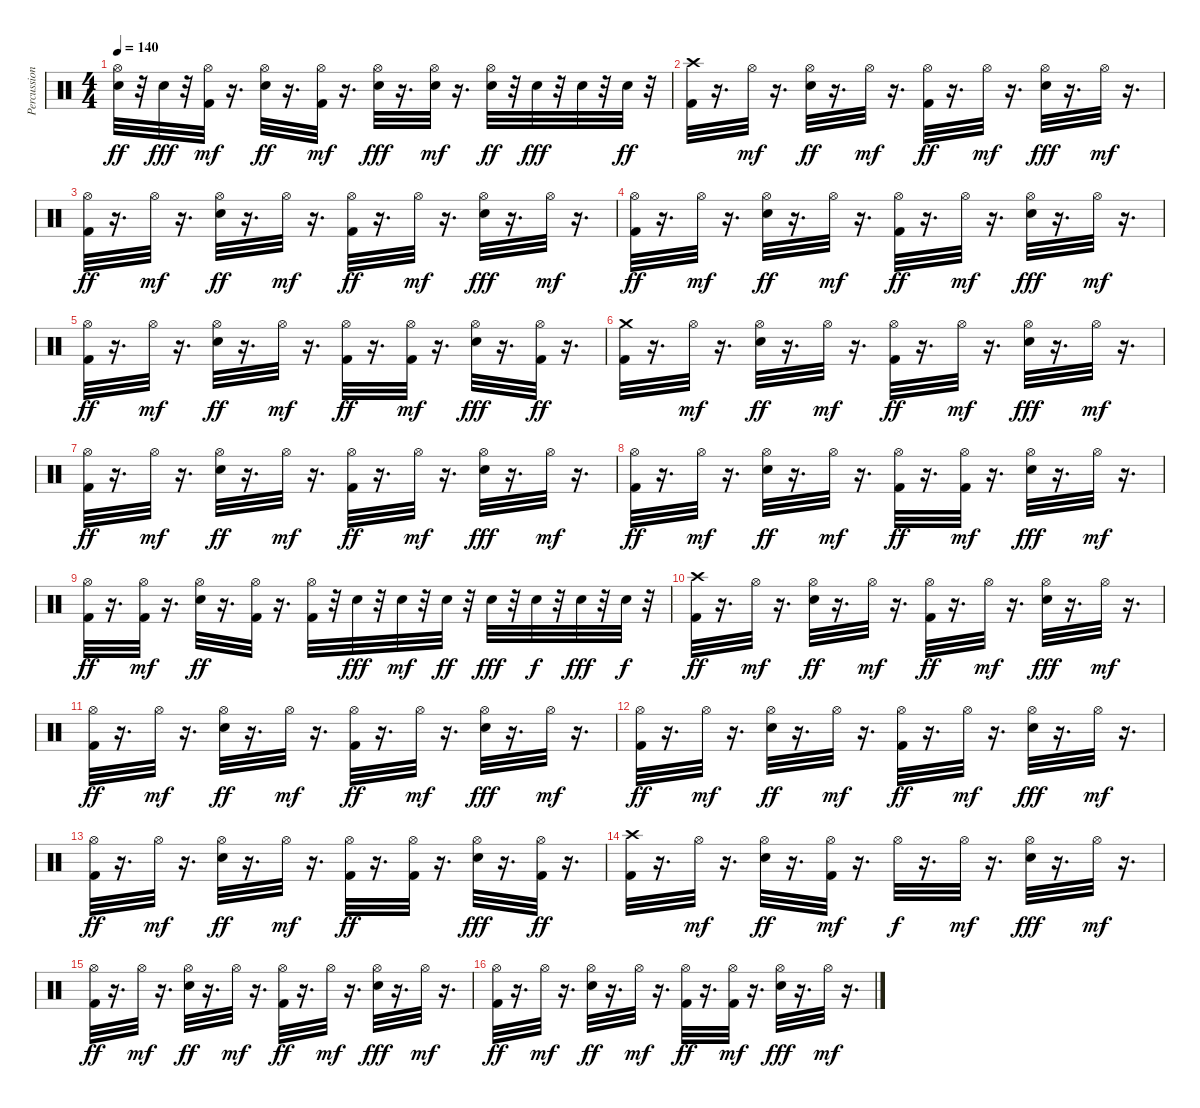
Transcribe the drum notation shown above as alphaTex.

\track ("Percussion" "Percussion") {instrument percussion}
\staff {score}
\articulation defaults
\ts (4 4)
\tempo 140
\clef neutral
\ks c
("Electric Snare (hit)" "Hi-Hat (open)").32{dy ff} r.32 "Electric Snare (hit)".32{dy fff} r.32 ("Kick (hit) 2" "Hi-Hat (open)").32{dy mf} r.16{d} ("Electric Snare (hit)" "Hi-Hat (open)").32{dy ff} r.16{d} ("Kick (hit) 2" "Hi-Hat (open)").32{dy mf} r.16{d} ("Hi-Hat (open)" "Electric Snare (hit)").32{dy fff} r.16{d} ("Electric Snare (hit)" "Hi-Hat (open)").32{dy mf} r.16{d} ("Electric Snare (hit)" "Hi-Hat (open)").32{dy ff} r.32 "Electric Snare (hit)".32{dy fff} r.32 "Electric Snare (hit)".32 r.32 "Electric Snare (hit)".32{dy ff} r.32 |
("Kick (hit) 2" "Crash high (hit)").32 r.16{d} "Hi-Hat (open)".32{dy mf} r.16{d} ("Electric Snare (hit)" "Hi-Hat (open)").32{dy ff} r.16{d} "Hi-Hat (open)".32{dy mf} r.16{d} ("Kick (hit) 2" "Hi-Hat (open)").32{dy ff} r.16{d} "Hi-Hat (open)".32{dy mf} r.16{d} ("Electric Snare (hit)" "Hi-Hat (open)").32{dy fff} r.16{d} "Hi-Hat (open)".32{dy mf} r.16{d} |
("Kick (hit) 2" "Hi-Hat (open)").32{dy ff} r.16{d} "Hi-Hat (open)".32{dy mf} r.16{d} ("Electric Snare (hit)" "Hi-Hat (open)").32{dy ff} r.16{d} "Hi-Hat (open)".32{dy mf} r.16{d} ("Kick (hit) 2" "Hi-Hat (open)").32{dy ff} r.16{d} "Hi-Hat (open)".32{dy mf} r.16{d} ("Electric Snare (hit)" "Hi-Hat (open)").32{dy fff} r.16{d} "Hi-Hat (open)".32{dy mf} r.16{d} |
("Kick (hit) 2" "Hi-Hat (open)").32{dy ff} r.16{d} "Hi-Hat (open)".32{dy mf} r.16{d} ("Electric Snare (hit)" "Hi-Hat (open)").32{dy ff} r.16{d} "Hi-Hat (open)".32{dy mf} r.16{d} ("Kick (hit) 2" "Hi-Hat (open)").32{dy ff} r.16{d} "Hi-Hat (open)".32{dy mf} r.16{d} ("Electric Snare (hit)" "Hi-Hat (open)").32{dy fff} r.16{d} "Hi-Hat (open)".32{dy mf} r.16{d} |
("Kick (hit) 2" "Hi-Hat (open)").32{dy ff} r.16{d} "Hi-Hat (open)".32{dy mf} r.16{d} ("Electric Snare (hit)" "Hi-Hat (open)").32{dy ff} r.16{d} "Hi-Hat (open)".32{dy mf} r.16{d} ("Kick (hit) 2" "Hi-Hat (open)").32{dy ff} r.16{d} ("Kick (hit) 2" "Hi-Hat (open)").32{dy mf} r.16{d} ("Electric Snare (hit)" "Hi-Hat (open)").32{dy fff} r.16{d} ("Hi-Hat (open)" "Kick (hit) 2").32{dy ff} r.16{d} |
("Kick (hit) 2" "Crash medium (hit)").32 r.16{d} "Hi-Hat (open)".32{dy mf} r.16{d} ("Electric Snare (hit)" "Hi-Hat (open)").32{dy ff} r.16{d} "Hi-Hat (open)".32{dy mf} r.16{d} ("Kick (hit) 2" "Hi-Hat (open)").32{dy ff} r.16{d} "Hi-Hat (open)".32{dy mf} r.16{d} ("Electric Snare (hit)" "Hi-Hat (open)").32{dy fff} r.16{d} "Hi-Hat (open)".32{dy mf} r.16{d} |
("Kick (hit) 2" "Hi-Hat (open)").32{dy ff} r.16{d} "Hi-Hat (open)".32{dy mf} r.16{d} ("Electric Snare (hit)" "Hi-Hat (open)").32{dy ff} r.16{d} "Hi-Hat (open)".32{dy mf} r.16{d} ("Kick (hit) 2" "Hi-Hat (open)").32{dy ff} r.16{d} "Hi-Hat (open)".32{dy mf} r.16{d} ("Electric Snare (hit)" "Hi-Hat (open)").32{dy fff} r.16{d} "Hi-Hat (open)".32{dy mf} r.16{d} |
("Kick (hit) 2" "Hi-Hat (open)").32{dy ff} r.16{d} "Hi-Hat (open)".32{dy mf} r.16{d} ("Electric Snare (hit)" "Hi-Hat (open)").32{dy ff} r.16{d} "Hi-Hat (open)".32{dy mf} r.16{d} ("Kick (hit) 2" "Hi-Hat (open)").32{dy ff} r.16{d} ("Kick (hit) 2" "Hi-Hat (open)").32{dy mf} r.16{d} ("Electric Snare (hit)" "Hi-Hat (open)").32{dy fff} r.16{d} "Hi-Hat (open)".32{dy mf} r.16{d} |
("Kick (hit) 2" "Hi-Hat (open)").32{dy ff} r.16{d} ("Kick (hit) 2" "Hi-Hat (open)").32{dy mf} r.16{d} ("Electric Snare (hit)" "Hi-Hat (open)").32{dy ff} r.16{d} ("Kick (hit) 2" "Hi-Hat (open)").32 r.16{d} ("Kick (hit) 2" "Hi-Hat (open)").32 r.32 "Electric Snare (hit)".32{dy fff} r.32 "Electric Snare (hit)".32{dy mf} r.32 "Electric Snare (hit)".32{dy ff} r.32 "Electric Snare (hit)".32{dy fff} r.32 "Electric Snare (hit)".32{dy f} r.32 "Electric Snare (hit)".32{dy fff} r.32 "Electric Snare (hit)".32{dy f} r.32 |
("Kick (hit) 2" "Crash high (hit)").32{dy ff} r.16{d} "Hi-Hat (open)".32{dy mf} r.16{d} ("Electric Snare (hit)" "Hi-Hat (open)").32{dy ff} r.16{d} "Hi-Hat (open)".32{dy mf} r.16{d} ("Kick (hit) 2" "Hi-Hat (open)").32{dy ff} r.16{d} "Hi-Hat (open)".32{dy mf} r.16{d} ("Electric Snare (hit)" "Hi-Hat (open)").32{dy fff} r.16{d} "Hi-Hat (open)".32{dy mf} r.16{d} |
("Kick (hit) 2" "Hi-Hat (open)").32{dy ff} r.16{d} "Hi-Hat (open)".32{dy mf} r.16{d} ("Electric Snare (hit)" "Hi-Hat (open)").32{dy ff} r.16{d} "Hi-Hat (open)".32{dy mf} r.16{d} ("Kick (hit) 2" "Hi-Hat (open)").32{dy ff} r.16{d} "Hi-Hat (open)".32{dy mf} r.16{d} ("Electric Snare (hit)" "Hi-Hat (open)").32{dy fff} r.16{d} "Hi-Hat (open)".32{dy mf} r.16{d} |
("Kick (hit) 2" "Hi-Hat (open)").32{dy ff} r.16{d} "Hi-Hat (open)".32{dy mf} r.16{d} ("Electric Snare (hit)" "Hi-Hat (open)").32{dy ff} r.16{d} "Hi-Hat (open)".32{dy mf} r.16{d} ("Kick (hit) 2" "Hi-Hat (open)").32{dy ff} r.16{d} "Hi-Hat (open)".32{dy mf} r.16{d} ("Electric Snare (hit)" "Hi-Hat (open)").32{dy fff} r.16{d} "Hi-Hat (open)".32{dy mf} r.16{d} |
("Kick (hit) 2" "Hi-Hat (open)").32{dy ff} r.16{d} "Hi-Hat (open)".32{dy mf} r.16{d} ("Electric Snare (hit)" "Hi-Hat (open)").32{dy ff} r.16{d} "Hi-Hat (open)".32{dy mf} r.16{d} ("Kick (hit) 2" "Hi-Hat (open)").32{dy ff} r.16{d} ("Hi-Hat (open)" "Kick (hit) 2").32 r.16{d} ("Electric Snare (hit)" "Hi-Hat (open)").32{dy fff} r.16{d} ("Hi-Hat (open)" "Kick (hit) 2").32{dy ff} r.16{d} |
("Kick (hit) 2" "Crash high (hit)").32 r.16{d} "Hi-Hat (open)".32{dy mf} r.16{d} ("Electric Snare (hit)" "Hi-Hat (open)").32{dy ff} r.16{d} ("Kick (hit) 2" "Hi-Hat (open)").32{dy mf} r.16{d} "Hi-Hat (open)".32{dy f} r.16{d} "Hi-Hat (open)".32{dy mf} r.16{d} ("Electric Snare (hit)" "Hi-Hat (open)").32{dy fff} r.16{d} "Hi-Hat (open)".32{dy mf} r.16{d} |
("Kick (hit) 2" "Hi-Hat (open)").32{dy ff} r.16{d} "Hi-Hat (open)".32{dy mf} r.16{d} ("Electric Snare (hit)" "Hi-Hat (open)").32{dy ff} r.16{d} "Hi-Hat (open)".32{dy mf} r.16{d} ("Kick (hit) 2" "Hi-Hat (open)").32{dy ff} r.16{d} "Hi-Hat (open)".32{dy mf} r.16{d} ("Electric Snare (hit)" "Hi-Hat (open)").32{dy fff} r.16{d} "Hi-Hat (open)".32{dy mf} r.16{d} |
("Kick (hit) 2" "Hi-Hat (open)").32{dy ff} r.16{d} "Hi-Hat (open)".32{dy mf} r.16{d} ("Electric Snare (hit)" "Hi-Hat (open)").32{dy ff} r.16{d} "Hi-Hat (open)".32{dy mf} r.16{d} ("Kick (hit) 2" "Hi-Hat (open)").32{dy ff} r.16{d} ("Kick (hit) 2" "Hi-Hat (open)").32{dy mf} r.16{d} ("Electric Snare (hit)" "Hi-Hat (open)").32{dy fff} r.16{d} "Hi-Hat (open)".32{dy mf} r.16{d}
